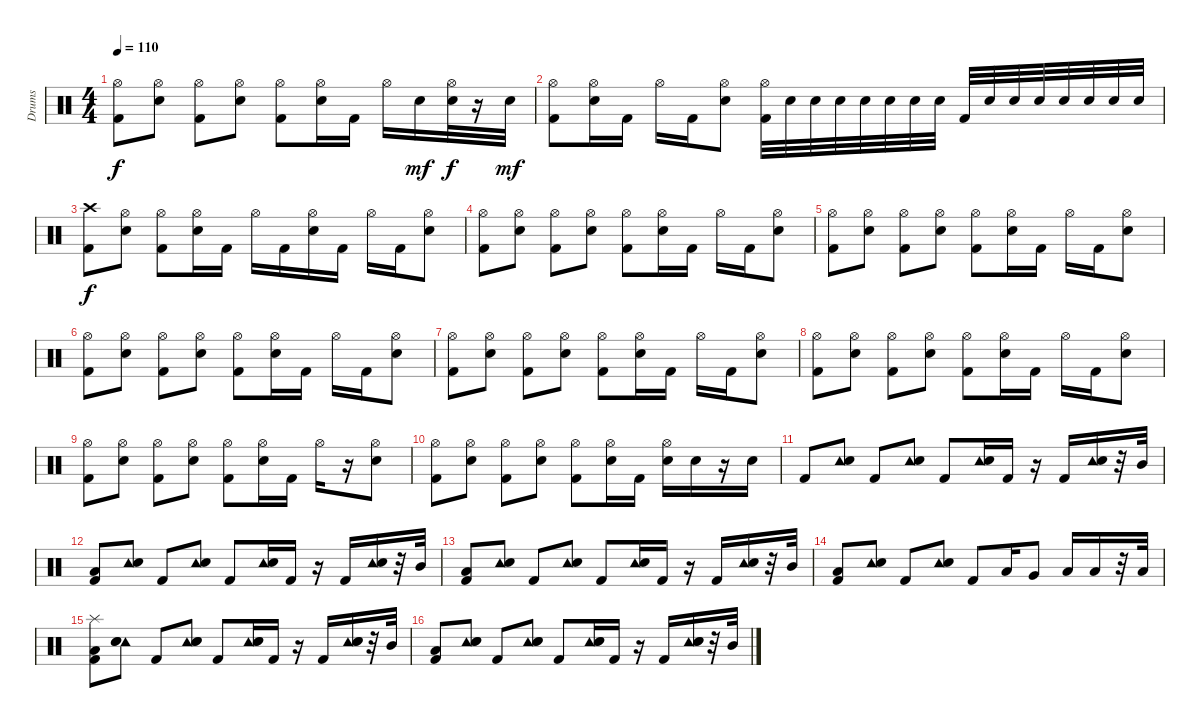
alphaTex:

\track ("Drums" "Drums") {instrument percussion}
\staff {score}
\articulation defaults
\ts (4 4)
\tempo 110
\clef neutral
\ks c
("Hi-Hat (open)" "Kick (hit) 2").8{dy f} ("Hi-Hat (open)" "Electric Snare (hit)").8 ("Hi-Hat (open)" "Kick (hit) 2").8 ("Hi-Hat (open)" "Electric Snare (hit)").8 ("Hi-Hat (open)" "Kick (hit) 2").8 ("Hi-Hat (open)" "Electric Snare (hit)").16 "Kick (hit) 2".16 "Hi-Hat (open)".16 "Electric Snare (hit)".16{dy mf} ("Hi-Hat (open)" "Electric Snare (hit)").32{dy f} r.16 "Electric Snare (hit)".32{dy mf} |
("Hi-Hat (open)" "Kick (hit) 2").8 ("Hi-Hat (open)" "Electric Snare (hit)").16 "Kick (hit) 2".16 "Hi-Hat (open)".16 "Kick (hit) 2".16 ("Hi-Hat (open)" "Electric Snare (hit)").8 ("Hi-Hat (open)" "Kick (hit) 2").32 "Electric Snare (hit)".32 "Electric Snare (hit)".32 "Electric Snare (hit)".32 "Electric Snare (hit)".32 "Electric Snare (hit)".32 "Electric Snare (hit)".32 "Electric Snare (hit)".32 "Kick (hit) 2".32 "Electric Snare (hit)".32 "Electric Snare (hit)".32 "Electric Snare (hit)".32 "Electric Snare (hit)".32 "Electric Snare (hit)".32 "Electric Snare (hit)".32 "Electric Snare (hit)".32 |
("Crash high (hit)" "Kick (hit) 2").8{dy f} ("Hi-Hat (open)" "Electric Snare (hit)").8 ("Hi-Hat (open)" "Kick (hit) 2").8 ("Hi-Hat (open)" "Electric Snare (hit)").16 "Kick (hit) 2".16 "Hi-Hat (open)".16 "Kick (hit) 2".16 ("Hi-Hat (open)" "Electric Snare (hit)").16 "Kick (hit) 2".16 "Hi-Hat (open)".16 "Kick (hit) 2".16 ("Hi-Hat (open)" "Electric Snare (hit)").8 |
("Hi-Hat (open)" "Kick (hit) 2").8 ("Hi-Hat (open)" "Electric Snare (hit)").8 ("Hi-Hat (open)" "Kick (hit) 2").8 ("Hi-Hat (open)" "Electric Snare (hit)").8 ("Hi-Hat (open)" "Kick (hit) 2").8 ("Hi-Hat (open)" "Electric Snare (hit)").16 "Kick (hit) 2".16 "Hi-Hat (open)".16 "Kick (hit) 2".16 ("Hi-Hat (open)" "Electric Snare (hit)").8 |
("Hi-Hat (open)" "Kick (hit) 2").8 ("Hi-Hat (open)" "Electric Snare (hit)").8 ("Hi-Hat (open)" "Kick (hit) 2").8 ("Hi-Hat (open)" "Electric Snare (hit)").8 ("Hi-Hat (open)" "Kick (hit) 2").8 ("Hi-Hat (open)" "Electric Snare (hit)").16 "Kick (hit) 2".16 "Hi-Hat (open)".16 "Kick (hit) 2".16 ("Hi-Hat (open)" "Electric Snare (hit)").8 |
("Hi-Hat (open)" "Kick (hit) 2").8 ("Hi-Hat (open)" "Electric Snare (hit)").8 ("Hi-Hat (open)" "Kick (hit) 2").8 ("Hi-Hat (open)" "Electric Snare (hit)").8 ("Hi-Hat (open)" "Kick (hit) 2").8 ("Hi-Hat (open)" "Electric Snare (hit)").16 "Kick (hit) 2".16 "Hi-Hat (open)".16 "Kick (hit) 2".16 ("Hi-Hat (open)" "Electric Snare (hit)").8 |
("Hi-Hat (open)" "Kick (hit) 2").8 ("Hi-Hat (open)" "Electric Snare (hit)").8 ("Hi-Hat (open)" "Kick (hit) 2").8 ("Hi-Hat (open)" "Electric Snare (hit)").8 ("Hi-Hat (open)" "Kick (hit) 2").8 ("Hi-Hat (open)" "Electric Snare (hit)").16 "Kick (hit) 2".16 "Hi-Hat (open)".16 "Kick (hit) 2".16 ("Hi-Hat (open)" "Electric Snare (hit)").8 |
("Hi-Hat (open)" "Kick (hit) 2").8 ("Hi-Hat (open)" "Electric Snare (hit)").8 ("Hi-Hat (open)" "Kick (hit) 2").8 ("Hi-Hat (open)" "Electric Snare (hit)").8 ("Hi-Hat (open)" "Kick (hit) 2").8 ("Hi-Hat (open)" "Electric Snare (hit)").16 "Kick (hit) 2".16 "Hi-Hat (open)".16 "Kick (hit) 2".16 ("Hi-Hat (open)" "Electric Snare (hit)").8 |
("Hi-Hat (open)" "Kick (hit) 2").8 ("Hi-Hat (open)" "Electric Snare (hit)").8 ("Hi-Hat (open)" "Kick (hit) 2").8 ("Hi-Hat (open)" "Electric Snare (hit)").8 ("Hi-Hat (open)" "Kick (hit) 2").8 ("Hi-Hat (open)" "Electric Snare (hit)").16 "Kick (hit) 2".16 "Hi-Hat (open)".16 r.16 ("Hi-Hat (open)" "Electric Snare (hit)").8 |
("Hi-Hat (open)" "Kick (hit) 2").8 ("Hi-Hat (open)" "Electric Snare (hit)").8 ("Hi-Hat (open)" "Kick (hit) 2").8 ("Hi-Hat (open)" "Electric Snare (hit)").8 ("Hi-Hat (open)" "Kick (hit) 2").8 ("Hi-Hat (open)" "Electric Snare (hit)").16 "Kick (hit) 2".16 ("Hi-Hat (open)" "Electric Snare (hit)").16 "Electric Snare (hit)".16 r.16 "Electric Snare (hit)".16 |
"Kick (hit) 2".8 ("Tambourine (hit)" "Electric Snare (hit)").8 "Kick (hit) 2".8 ("Tambourine (hit)" "Electric Snare (hit)").8 "Kick (hit) 2".8 ("Tambourine (hit)" "Electric Snare (hit)").16 "Kick (hit) 2".16 r.16 "Kick (hit) 2".16 ("Tambourine (hit)" "Electric Snare (hit)").16 r.32 "Mid Tom (hit)".32 |
("Kick (hit) 2" "Low Tom (hit)").8 ("Tambourine (hit)" "Electric Snare (hit)").8 "Kick (hit) 2".8 ("Tambourine (hit)" "Electric Snare (hit)").8 "Kick (hit) 2".8 ("Tambourine (hit)" "Electric Snare (hit)").16 "Kick (hit) 2".16 r.16 "Kick (hit) 2".16 ("Tambourine (hit)" "Electric Snare (hit)").16 r.32 "Mid Tom (hit)".32 |
("Kick (hit) 2" "Low Tom (hit)").8 ("Tambourine (hit)" "Electric Snare (hit)").8 "Kick (hit) 2".8 ("Tambourine (hit)" "Electric Snare (hit)").8 "Kick (hit) 2".8 ("Tambourine (hit)" "Electric Snare (hit)").16 "Kick (hit) 2".16 r.16 "Kick (hit) 2".16 ("Tambourine (hit)" "Electric Snare (hit)").16 r.32 "Mid Tom (hit)".32 |
("Kick (hit) 2" "Low Tom (hit)").8 ("Tambourine (hit)" "Electric Snare (hit)").8 "Kick (hit) 2".8 ("Tambourine (hit)" "Electric Snare (hit)").8 "Kick (hit) 2".8 "Low Tom (hit)".16 "Very Low Tom (hit)".8 "Low Floor Tom (hit)".16 "Low Floor Tom (hit)".16 r.32 "Low Floor Tom (hit)".32 |
("Splash (hit)" "Kick (hit) 2" "Low Tom (hit)").8 ("Tambourine (hit)" "Electric Snare (hit)" "Hand Clap (hit)").8 "Kick (hit) 2".8 ("Tambourine (hit)" "Electric Snare (hit)" "Hand Clap (hit)").8 "Kick (hit) 2".8 ("Tambourine (hit)" "Electric Snare (hit)" "Hand Clap (hit)").16 "Kick (hit) 2".16 r.16 "Kick (hit) 2".16 ("Tambourine (hit)" "Electric Snare (hit)" "Hand Clap (hit)").16 r.32 "Mid Tom (hit)".32 |
("Kick (hit) 2" "Low Tom (hit)").8 ("Tambourine (hit)" "Electric Snare (hit)" "Hand Clap (hit)").8 "Kick (hit) 2".8 ("Tambourine (hit)" "Electric Snare (hit)" "Hand Clap (hit)").8 "Kick (hit) 2".8 ("Tambourine (hit)" "Electric Snare (hit)" "Hand Clap (hit)").16 "Kick (hit) 2".16 r.16 "Kick (hit) 2".16 ("Tambourine (hit)" "Electric Snare (hit)" "Hand Clap (hit)").16 r.32 "Mid Tom (hit)".32
